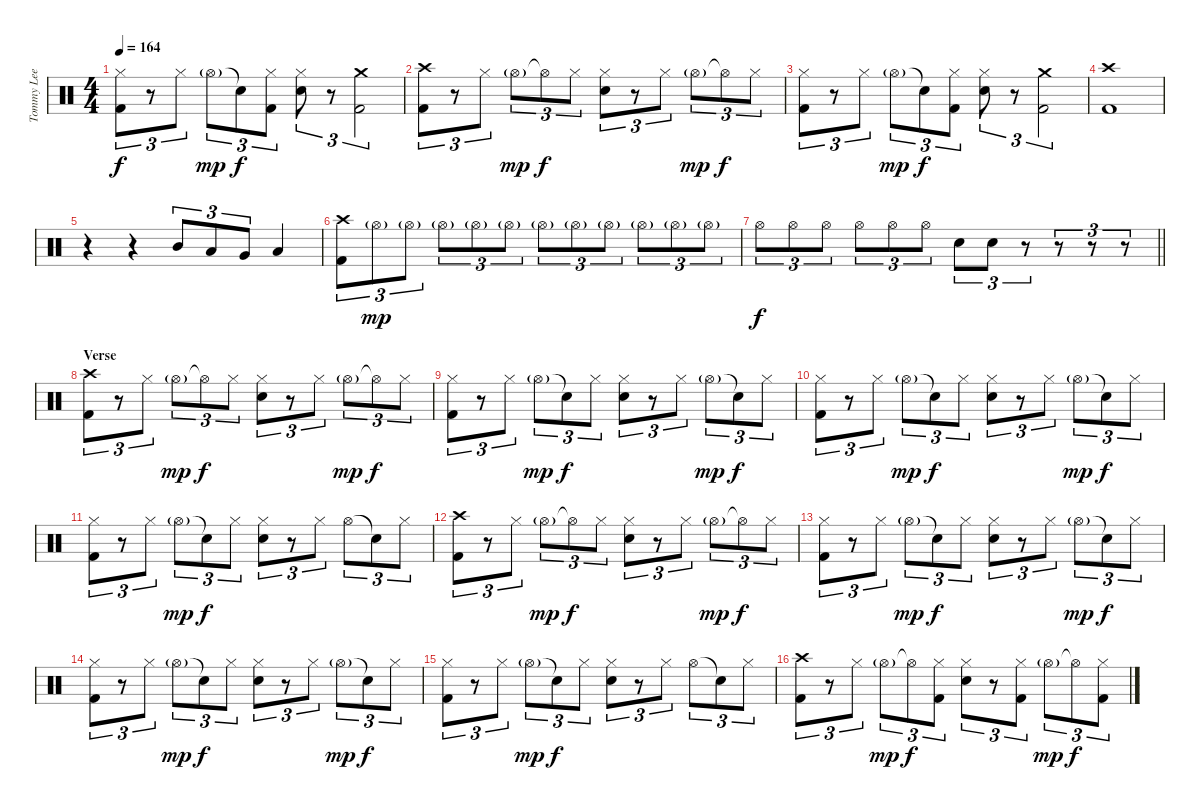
\track ("Tommy Lee" "Tommy Lee") {instrument percussion}
\staff {score}
\articulation defaults
\ts (4 4)
\tempo 164
\clef neutral
\ks c
("Hi-Hat (closed)" "Kick (hit) 2").8{tu (3 2) dy f} r.8{tu (3 2)} "Hi-Hat (closed)".8{tu (3 2)} "Hi-Hat (open)"{g}.8{tu (3 2) dy mp} "Snare (hit)"{t}.8{tu (3 2) dy f} ("Hi-Hat (closed)" "Kick (hit) 2").8{tu (3 2)} ("Hi-Hat (closed)" "Snare (hit) 2").8{tu (3 2)} r.8{tu (3 2)} ("Crash medium (hit)" "Kick (hit) 2").2{tu (3 2)} |
("Crash high (hit)" "Kick (hit) 2").8{tu (3 2)} r.8{tu (3 2)} "Hi-Hat (closed)".8{tu (3 2)} "Hi-Hat (open)"{g}.8{tu (3 2) dy mp} "Hi-Hat (open)"{t}.8{tu (3 2) dy f} "Hi-Hat (closed)".8{tu (3 2)} ("Hi-Hat (closed)" "Snare (hit) 2").8{tu (3 2)} r.8{tu (3 2)} "Hi-Hat (closed)".8{tu (3 2)} "Hi-Hat (open)"{g}.8{tu (3 2) dy mp} "Hi-Hat (open)"{t}.8{tu (3 2) dy f} "Hi-Hat (closed)".8{tu (3 2)} |
("Hi-Hat (closed)" "Kick (hit) 2").8{tu (3 2)} r.8{tu (3 2)} "Hi-Hat (closed)".8{tu (3 2)} "Hi-Hat (open)"{g}.8{tu (3 2) dy mp} "Snare (hit)"{t}.8{tu (3 2) dy f} ("Hi-Hat (closed)" "Kick (hit) 2").8{tu (3 2)} ("Hi-Hat (closed)" "Snare (hit) 2").8{tu (3 2)} r.8{tu (3 2)} ("Crash medium (hit)" "Kick (hit) 2").2{tu (3 2)} |
("Crash high (hit)" "Kick (hit) 2").1 |
r.4 r.4 "Mid Tom (hit)".8{tu (3 2)} "Low Tom (hit)".8{tu (3 2)} "Very Low Tom (hit)".8{tu (3 2)} "Low Floor Tom (hit)".4 |
("Crash high (hit)" "Kick (hit) 2").8{tu (3 2)} "Hi-Hat (open)"{g}.8{tu (3 2) dy mp} "Hi-Hat (open)"{g}.8{tu (3 2)} "Hi-Hat (open)"{g}.8{tu (3 2)} "Hi-Hat (open)"{g}.8{tu (3 2)} "Hi-Hat (open)"{g}.8{tu (3 2)} "Hi-Hat (open)"{g}.8{tu (3 2)} "Hi-Hat (open)"{g}.8{tu (3 2)} "Hi-Hat (open)"{g}.8{tu (3 2)} "Hi-Hat (open)"{g}.8{tu (3 2)} "Hi-Hat (open)"{g}.8{tu (3 2)} "Hi-Hat (open)"{g}.8{tu (3 2)} |
\barLineRight lightlight "Hi-Hat (open)".8{tu (3 2) dy f} "Hi-Hat (open)".8{tu (3 2)} "Hi-Hat (open)".8{tu (3 2)} "Hi-Hat (open)".8{tu (3 2)} "Hi-Hat (open)".8{tu (3 2)} "Hi-Hat (open)".8{tu (3 2)} "Snare (hit) 2".8{tu (3 2)} "Snare (hit) 2".8{tu (3 2)}
r.8{tu (3 2)} r.8{tu (3 2)} r.8{tu (3 2)} r.8{tu (3 2)} |
\section ("" "Verse")
("Crash high (hit)" "Kick (hit) 2").8{tu (3 2)} r.8{tu (3 2)} "Hi-Hat (closed)".8{tu (3 2)} "Hi-Hat (open)"{g}.8{tu (3 2) dy mp} "Hi-Hat (open)"{t}.8{tu (3 2) dy f} "Hi-Hat (closed)".8{tu (3 2)} ("Hi-Hat (closed)" "Snare (hit) 2").8{tu (3 2)} r.8{tu (3 2)} "Hi-Hat (closed)".8{tu (3 2)} "Hi-Hat (open)"{g}.8{tu (3 2) dy mp} "Hi-Hat (open)"{t}.8{tu (3 2) dy f} "Hi-Hat (closed)".8{tu (3 2)} |
("Hi-Hat (closed)" "Kick (hit) 2").8{tu (3 2)} r.8{tu (3 2)} "Hi-Hat (closed)".8{tu (3 2)} "Hi-Hat (open)"{g}.8{tu (3 2) dy mp} "Snare (hit)"{t}.8{tu (3 2) dy f} "Hi-Hat (closed)".8{tu (3 2)} ("Hi-Hat (closed)" "Snare (hit) 2").8{tu (3 2)} r.8{tu (3 2)} "Hi-Hat (closed)".8{tu (3 2)} "Hi-Hat (open)"{g}.8{tu (3 2) dy mp} "Snare (hit)"{t}.8{tu (3 2) dy f} "Hi-Hat (closed)".8{tu (3 2)} |
("Hi-Hat (closed)" "Kick (hit) 2").8{tu (3 2)} r.8{tu (3 2)} "Hi-Hat (closed)".8{tu (3 2)} "Hi-Hat (open)"{g}.8{tu (3 2) dy mp} "Snare (hit)"{t}.8{tu (3 2) dy f} "Hi-Hat (closed)".8{tu (3 2)} ("Hi-Hat (closed)" "Snare (hit) 2").8{tu (3 2)} r.8{tu (3 2)} "Hi-Hat (closed)".8{tu (3 2)} "Hi-Hat (open)"{g}.8{tu (3 2) dy mp} "Snare (hit)"{t}.8{tu (3 2) dy f} "Hi-Hat (closed)".8{tu (3 2)} |
("Hi-Hat (closed)" "Kick (hit) 2").8{tu (3 2)} r.8{tu (3 2)} "Hi-Hat (closed)".8{tu (3 2)} "Hi-Hat (open)"{g}.8{tu (3 2) dy mp} "Snare (hit)"{t}.8{tu (3 2) dy f} "Hi-Hat (closed)".8{tu (3 2)} ("Hi-Hat (closed)" "Snare (hit) 2").8{tu (3 2)} r.8{tu (3 2)} "Hi-Hat (closed)".8{tu (3 2)} "Hi-Hat (open)".8{tu (3 2)} "Snare (hit)"{t}.8{tu (3 2)} "Hi-Hat (closed)".8{tu (3 2)} |
("Crash high (hit)" "Kick (hit) 2").8{tu (3 2)} r.8{tu (3 2)} "Hi-Hat (closed)".8{tu (3 2)} "Hi-Hat (open)"{g}.8{tu (3 2) dy mp} "Hi-Hat (open)"{t}.8{tu (3 2) dy f} "Hi-Hat (closed)".8{tu (3 2)} ("Hi-Hat (closed)" "Snare (hit) 2").8{tu (3 2)} r.8{tu (3 2)} "Hi-Hat (closed)".8{tu (3 2)} "Hi-Hat (open)"{g}.8{tu (3 2) dy mp} "Hi-Hat (open)"{t}.8{tu (3 2) dy f} "Hi-Hat (closed)".8{tu (3 2)} |
("Hi-Hat (closed)" "Kick (hit) 2").8{tu (3 2)} r.8{tu (3 2)} "Hi-Hat (closed)".8{tu (3 2)} "Hi-Hat (open)"{g}.8{tu (3 2) dy mp} "Snare (hit)"{t}.8{tu (3 2) dy f} "Hi-Hat (closed)".8{tu (3 2)} ("Hi-Hat (closed)" "Snare (hit) 2").8{tu (3 2)} r.8{tu (3 2)} "Hi-Hat (closed)".8{tu (3 2)} "Hi-Hat (open)"{g}.8{tu (3 2) dy mp} "Snare (hit)"{t}.8{tu (3 2) dy f} "Hi-Hat (closed)".8{tu (3 2)} |
("Hi-Hat (closed)" "Kick (hit) 2").8{tu (3 2)} r.8{tu (3 2)} "Hi-Hat (closed)".8{tu (3 2)} "Hi-Hat (open)"{g}.8{tu (3 2) dy mp} "Snare (hit)"{t}.8{tu (3 2) dy f} "Hi-Hat (closed)".8{tu (3 2)} ("Hi-Hat (closed)" "Snare (hit) 2").8{tu (3 2)} r.8{tu (3 2)} "Hi-Hat (closed)".8{tu (3 2)} "Hi-Hat (open)"{g}.8{tu (3 2) dy mp} "Snare (hit)"{t}.8{tu (3 2) dy f} "Hi-Hat (closed)".8{tu (3 2)} |
("Hi-Hat (closed)" "Kick (hit) 2").8{tu (3 2)} r.8{tu (3 2)} "Hi-Hat (closed)".8{tu (3 2)} "Hi-Hat (open)"{g}.8{tu (3 2) dy mp} "Snare (hit)"{t}.8{tu (3 2) dy f} "Hi-Hat (closed)".8{tu (3 2)} ("Hi-Hat (closed)" "Snare (hit) 2").8{tu (3 2)} r.8{tu (3 2)} "Hi-Hat (closed)".8{tu (3 2)} "Hi-Hat (open)".8{tu (3 2)} "Snare (hit)"{t}.8{tu (3 2)} "Hi-Hat (closed)".8{tu (3 2)} |
("Crash high (hit)" "Kick (hit) 2").8{tu (3 2)} r.8{tu (3 2)} "Hi-Hat (closed)".8{tu (3 2)} "Hi-Hat (open)"{g}.8{tu (3 2) dy mp} "Hi-Hat (open)"{t}.8{tu (3 2) dy f} ("Hi-Hat (closed)" "Kick (hit) 2").8{tu (3 2)} ("Hi-Hat (closed)" "Snare (hit) 2").8{tu (3 2)} r.8{tu (3 2)} ("Hi-Hat (closed)" "Kick (hit) 2").8{tu (3 2)} "Hi-Hat (open)"{g}.8{tu (3 2) dy mp} "Hi-Hat (open)"{t}.8{tu (3 2) dy f} ("Hi-Hat (closed)" "Kick (hit) 2").8{tu (3 2)}
